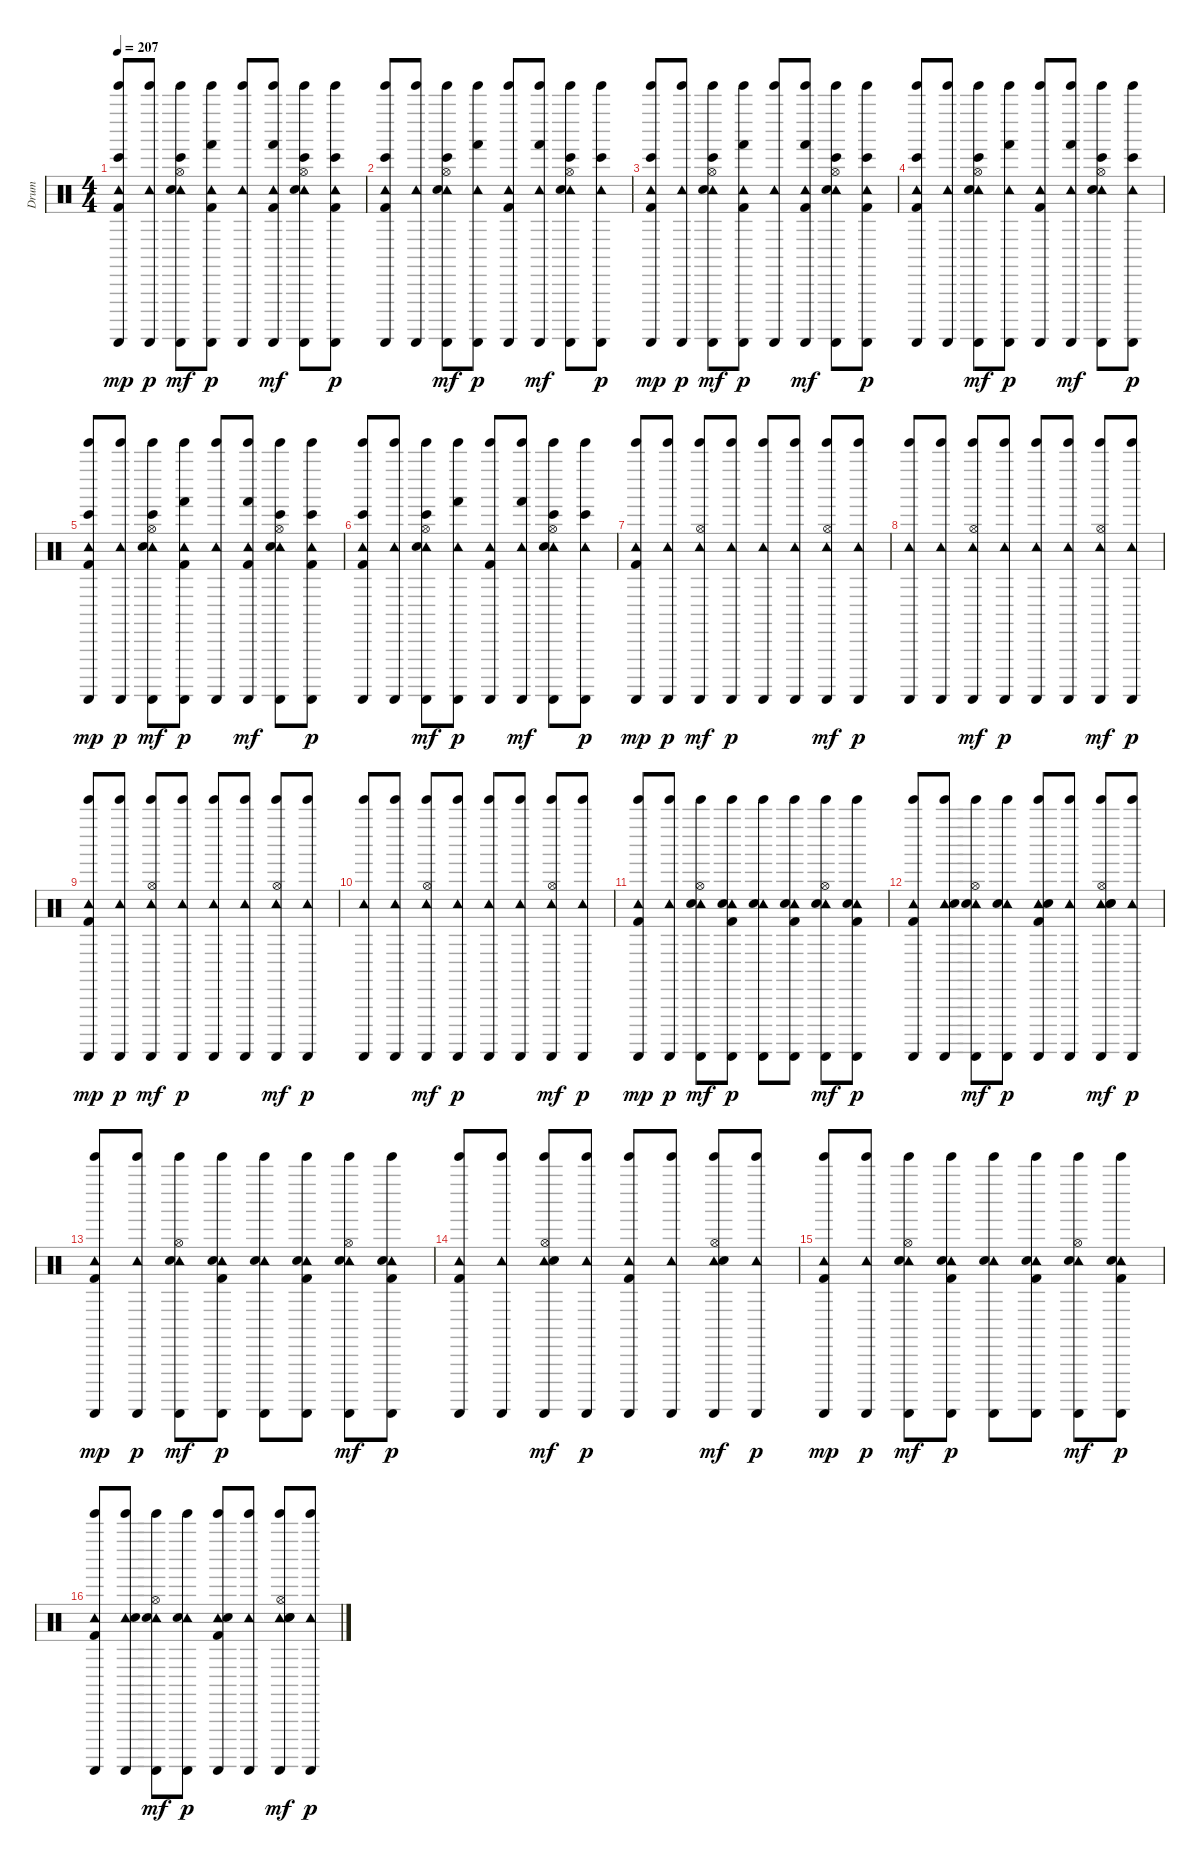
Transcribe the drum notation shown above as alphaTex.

\track ("Drum" "Drum") {instrument percussion}
\staff {score}
\articulation defaults
\ts (4 4)
\tempo 207
\clef neutral
\ks c
("Tambourine (hit)" "Kick (hit) 2" "Tinkle Bell (hit)" "Guiro (scrap-return)" "Bongo High (hit)").8{dy mp} ("Tambourine (hit)" "Tinkle Bell (hit)" "Guiro (scrap-return)").8{dy p} ("Tambourine (hit)" "Hi-Hat (open)" "Snare (hit) 2" "Tinkle Bell (hit)" "Guiro (scrap-return)" "Bongo High (hit)").8{dy mf} ("Tambourine (hit)" "Kick (hit) 2" "Tinkle Bell (hit)" "Guiro (scrap-return)" "Hand (hit)").8{dy p} ("Tambourine (hit)" "Tinkle Bell (hit)" "Guiro (scrap-return)").8 ("Tambourine (hit)" "Kick (hit) 2" "Tinkle Bell (hit)" "Guiro (scrap-return)" "Hand (hit)").8{dy mf} ("Tambourine (hit)" "Hi-Hat (open)" "Snare (hit) 2" "Tinkle Bell (hit)" "Guiro (scrap-return)" "Bongo High (hit)").8 ("Tambourine (hit)" "Kick (hit) 2" "Tinkle Bell (hit)" "Guiro (scrap-return)" "Bongo High (hit)").8{dy p} |
("Tambourine (hit)" "Kick (hit) 2" "Tinkle Bell (hit)" "Guiro (scrap-return)" "Bongo High (hit)").8 ("Tambourine (hit)" "Tinkle Bell (hit)" "Guiro (scrap-return)").8 ("Tambourine (hit)" "Hi-Hat (open)" "Snare (hit) 2" "Tinkle Bell (hit)" "Guiro (scrap-return)" "Bongo High (hit)").8{dy mf} ("Tambourine (hit)" "Tinkle Bell (hit)" "Guiro (scrap-return)" "Hand (hit)").8{dy p} ("Tambourine (hit)" "Kick (hit) 2" "Tinkle Bell (hit)" "Guiro (scrap-return)").8 ("Tambourine (hit)" "Tinkle Bell (hit)" "Guiro (scrap-return)" "Hand (hit)").8{dy mf} ("Tambourine (hit)" "Hi-Hat (open)" "Snare (hit) 2" "Tinkle Bell (hit)" "Guiro (scrap-return)" "Bongo High (hit)").8 ("Tambourine (hit)" "Tinkle Bell (hit)" "Guiro (scrap-return)" "Bongo High (hit)").8{dy p} |
("Tambourine (hit)" "Kick (hit) 2" "Tinkle Bell (hit)" "Guiro (scrap-return)" "Bongo High (hit)").8{dy mp} ("Tambourine (hit)" "Tinkle Bell (hit)" "Guiro (scrap-return)").8{dy p} ("Tambourine (hit)" "Hi-Hat (open)" "Snare (hit) 2" "Tinkle Bell (hit)" "Guiro (scrap-return)" "Bongo High (hit)").8{dy mf} ("Tambourine (hit)" "Kick (hit) 2" "Tinkle Bell (hit)" "Guiro (scrap-return)" "Hand (hit)").8{dy p} ("Tambourine (hit)" "Tinkle Bell (hit)" "Guiro (scrap-return)").8 ("Tambourine (hit)" "Kick (hit) 2" "Tinkle Bell (hit)" "Guiro (scrap-return)" "Hand (hit)").8{dy mf} ("Tambourine (hit)" "Hi-Hat (open)" "Snare (hit) 2" "Tinkle Bell (hit)" "Guiro (scrap-return)" "Bongo High (hit)").8 ("Tambourine (hit)" "Kick (hit) 2" "Tinkle Bell (hit)" "Guiro (scrap-return)" "Bongo High (hit)").8{dy p} |
("Tambourine (hit)" "Kick (hit) 2" "Tinkle Bell (hit)" "Guiro (scrap-return)" "Bongo High (hit)").8 ("Tambourine (hit)" "Tinkle Bell (hit)" "Guiro (scrap-return)").8 ("Tambourine (hit)" "Hi-Hat (open)" "Snare (hit) 2" "Tinkle Bell (hit)" "Guiro (scrap-return)" "Bongo High (hit)").8{dy mf} ("Tambourine (hit)" "Tinkle Bell (hit)" "Guiro (scrap-return)" "Hand (hit)").8{dy p} ("Tambourine (hit)" "Kick (hit) 2" "Tinkle Bell (hit)" "Guiro (scrap-return)").8 ("Tambourine (hit)" "Tinkle Bell (hit)" "Guiro (scrap-return)" "Hand (hit)").8{dy mf} ("Tambourine (hit)" "Hi-Hat (open)" "Snare (hit) 2" "Tinkle Bell (hit)" "Guiro (scrap-return)" "Bongo High (hit)").8 ("Tambourine (hit)" "Tinkle Bell (hit)" "Guiro (scrap-return)" "Bongo High (hit)").8{dy p} |
("Tambourine (hit)" "Kick (hit) 2" "Tinkle Bell (hit)" "Guiro (scrap-return)" "Bongo High (hit)").8{dy mp} ("Tambourine (hit)" "Tinkle Bell (hit)" "Guiro (scrap-return)").8{dy p} ("Tambourine (hit)" "Hi-Hat (open)" "Snare (hit) 2" "Tinkle Bell (hit)" "Guiro (scrap-return)" "Bongo High (hit)").8{dy mf} ("Tambourine (hit)" "Kick (hit) 2" "Tinkle Bell (hit)" "Guiro (scrap-return)" "Hand (hit)").8{dy p} ("Tambourine (hit)" "Tinkle Bell (hit)" "Guiro (scrap-return)").8 ("Tambourine (hit)" "Kick (hit) 2" "Tinkle Bell (hit)" "Guiro (scrap-return)" "Hand (hit)").8{dy mf} ("Tambourine (hit)" "Hi-Hat (open)" "Snare (hit) 2" "Tinkle Bell (hit)" "Guiro (scrap-return)" "Bongo High (hit)").8 ("Tambourine (hit)" "Kick (hit) 2" "Tinkle Bell (hit)" "Guiro (scrap-return)" "Bongo High (hit)").8{dy p} |
("Tambourine (hit)" "Kick (hit) 2" "Tinkle Bell (hit)" "Guiro (scrap-return)" "Bongo High (hit)").8 ("Tambourine (hit)" "Tinkle Bell (hit)" "Guiro (scrap-return)").8 ("Tambourine (hit)" "Hi-Hat (open)" "Snare (hit) 2" "Tinkle Bell (hit)" "Guiro (scrap-return)" "Bongo High (hit)").8{dy mf} ("Tambourine (hit)" "Tinkle Bell (hit)" "Guiro (scrap-return)" "Hand (hit)").8{dy p} ("Tambourine (hit)" "Kick (hit) 2" "Tinkle Bell (hit)" "Guiro (scrap-return)").8 ("Tambourine (hit)" "Tinkle Bell (hit)" "Guiro (scrap-return)" "Hand (hit)").8{dy mf} ("Tambourine (hit)" "Hi-Hat (open)" "Snare (hit) 2" "Tinkle Bell (hit)" "Guiro (scrap-return)" "Bongo High (hit)").8 ("Tambourine (hit)" "Tinkle Bell (hit)" "Guiro (scrap-return)" "Bongo High (hit)").8{dy p} |
("Tambourine (hit)" "Kick (hit) 2" "Tinkle Bell (hit)" "Guiro (scrap-return)").8{dy mp} ("Tambourine (hit)" "Tinkle Bell (hit)" "Guiro (scrap-return)").8{dy p} ("Tambourine (hit)" "Hi-Hat (open)" "Tinkle Bell (hit)" "Guiro (scrap-return)").8{dy mf} ("Tambourine (hit)" "Tinkle Bell (hit)" "Guiro (scrap-return)").8{dy p} ("Tambourine (hit)" "Tinkle Bell (hit)" "Guiro (scrap-return)").8 ("Tambourine (hit)" "Tinkle Bell (hit)" "Guiro (scrap-return)").8 ("Tambourine (hit)" "Hi-Hat (open)" "Tinkle Bell (hit)" "Guiro (scrap-return)").8{dy mf} ("Tambourine (hit)" "Tinkle Bell (hit)" "Guiro (scrap-return)").8{dy p} |
("Tambourine (hit)" "Tinkle Bell (hit)" "Guiro (scrap-return)").8 ("Tambourine (hit)" "Tinkle Bell (hit)" "Guiro (scrap-return)").8 ("Tambourine (hit)" "Hi-Hat (open)" "Tinkle Bell (hit)" "Guiro (scrap-return)").8{dy mf} ("Tambourine (hit)" "Tinkle Bell (hit)" "Guiro (scrap-return)").8{dy p} ("Tambourine (hit)" "Tinkle Bell (hit)" "Guiro (scrap-return)").8 ("Tambourine (hit)" "Tinkle Bell (hit)" "Guiro (scrap-return)").8 ("Tambourine (hit)" "Hi-Hat (open)" "Tinkle Bell (hit)" "Guiro (scrap-return)").8{dy mf} ("Tambourine (hit)" "Tinkle Bell (hit)" "Guiro (scrap-return)").8{dy p} |
("Tambourine (hit)" "Kick (hit) 2" "Tinkle Bell (hit)" "Guiro (scrap-return)").8{dy mp} ("Tambourine (hit)" "Tinkle Bell (hit)" "Guiro (scrap-return)").8{dy p} ("Tambourine (hit)" "Hi-Hat (open)" "Tinkle Bell (hit)" "Guiro (scrap-return)").8{dy mf} ("Tambourine (hit)" "Tinkle Bell (hit)" "Guiro (scrap-return)").8{dy p} ("Tambourine (hit)" "Tinkle Bell (hit)" "Guiro (scrap-return)").8 ("Tambourine (hit)" "Tinkle Bell (hit)" "Guiro (scrap-return)").8 ("Tambourine (hit)" "Hi-Hat (open)" "Tinkle Bell (hit)" "Guiro (scrap-return)").8{dy mf} ("Tambourine (hit)" "Tinkle Bell (hit)" "Guiro (scrap-return)").8{dy p} |
("Tambourine (hit)" "Tinkle Bell (hit)" "Guiro (scrap-return)").8 ("Tambourine (hit)" "Tinkle Bell (hit)" "Guiro (scrap-return)").8 ("Tambourine (hit)" "Hi-Hat (open)" "Tinkle Bell (hit)" "Guiro (scrap-return)").8{dy mf} ("Tambourine (hit)" "Tinkle Bell (hit)" "Guiro (scrap-return)").8{dy p} ("Tambourine (hit)" "Tinkle Bell (hit)" "Guiro (scrap-return)").8 ("Tambourine (hit)" "Tinkle Bell (hit)" "Guiro (scrap-return)").8 ("Tambourine (hit)" "Hi-Hat (open)" "Tinkle Bell (hit)" "Guiro (scrap-return)").8{dy mf} ("Tambourine (hit)" "Tinkle Bell (hit)" "Guiro (scrap-return)").8{dy p} |
("Tambourine (hit)" "Kick (hit) 2" "Tinkle Bell (hit)" "Guiro (scrap-return)").8{dy mp} ("Tambourine (hit)" "Tinkle Bell (hit)" "Guiro (scrap-return)").8{dy p} ("Tambourine (hit)" "Hi-Hat (open)" "Snare (hit) 2" "Tinkle Bell (hit)" "Guiro (scrap-return)").8{dy mf} ("Tambourine (hit)" "Kick (hit) 2" "Tinkle Bell (hit)" "Guiro (scrap-return)" "Hand Clap (hit)").8{dy p} ("Tambourine (hit)" "Tinkle Bell (hit)" "Guiro (scrap-return)" "Hand Clap (hit)").8 ("Tambourine (hit)" "Kick (hit) 2" "Tinkle Bell (hit)" "Guiro (scrap-return)" "Hand Clap (hit)").8 ("Tambourine (hit)" "Hi-Hat (open)" "Snare (hit) 2" "Tinkle Bell (hit)" "Guiro (scrap-return)").8{dy mf} ("Tambourine (hit)" "Kick (hit) 2" "Tinkle Bell (hit)" "Guiro (scrap-return)" "Hand Clap (hit)").8{dy p} |
("Tambourine (hit)" "Kick (hit) 2" "Tinkle Bell (hit)" "Guiro (scrap-return)").8 ("Tambourine (hit)" "Tinkle Bell (hit)" "Guiro (scrap-return)" "Hand Clap (hit)").8 ("Tambourine (hit)" "Hi-Hat (open)" "Snare (hit) 2" "Tinkle Bell (hit)" "Guiro (scrap-return)").8{dy mf} ("Tambourine (hit)" "Tinkle Bell (hit)" "Guiro (scrap-return)" "Hand Clap (hit)").8{dy p} ("Tambourine (hit)" "Kick (hit) 2" "Tinkle Bell (hit)" "Guiro (scrap-return)" "Hand Clap (hit)").8 ("Tambourine (hit)" "Tinkle Bell (hit)" "Guiro (scrap-return)").8 ("Tambourine (hit)" "Hi-Hat (open)" "Snare (hit) 2" "Tinkle Bell (hit)" "Guiro (scrap-return)" "Hand Clap (hit)").8{dy mf} ("Tambourine (hit)" "Tinkle Bell (hit)" "Guiro (scrap-return)").8{dy p} |
("Tambourine (hit)" "Kick (hit) 2" "Tinkle Bell (hit)" "Guiro (scrap-return)").8{dy mp} ("Tambourine (hit)" "Tinkle Bell (hit)" "Guiro (scrap-return)").8{dy p} ("Tambourine (hit)" "Hi-Hat (open)" "Snare (hit) 2" "Tinkle Bell (hit)" "Guiro (scrap-return)").8{dy mf} ("Tambourine (hit)" "Kick (hit) 2" "Tinkle Bell (hit)" "Guiro (scrap-return)" "Hand Clap (hit)").8{dy p} ("Tambourine (hit)" "Tinkle Bell (hit)" "Guiro (scrap-return)" "Hand Clap (hit)").8 ("Tambourine (hit)" "Kick (hit) 2" "Tinkle Bell (hit)" "Guiro (scrap-return)" "Hand Clap (hit)").8 ("Tambourine (hit)" "Hi-Hat (open)" "Snare (hit) 2" "Tinkle Bell (hit)" "Guiro (scrap-return)").8{dy mf} ("Tambourine (hit)" "Kick (hit) 2" "Tinkle Bell (hit)" "Guiro (scrap-return)" "Hand Clap (hit)").8{dy p} |
("Tambourine (hit)" "Kick (hit) 2" "Tinkle Bell (hit)" "Guiro (scrap-return)").8 ("Tambourine (hit)" "Tinkle Bell (hit)" "Guiro (scrap-return)").8 ("Tambourine (hit)" "Hi-Hat (open)" "Snare (hit) 2" "Tinkle Bell (hit)" "Guiro (scrap-return)").8{dy mf} ("Tambourine (hit)" "Tinkle Bell (hit)" "Guiro (scrap-return)").8{dy p} ("Tambourine (hit)" "Kick (hit) 2" "Tinkle Bell (hit)" "Guiro (scrap-return)").8 ("Tambourine (hit)" "Tinkle Bell (hit)" "Guiro (scrap-return)").8 ("Tambourine (hit)" "Hi-Hat (open)" "Snare (hit) 2" "Tinkle Bell (hit)" "Guiro (scrap-return)").8{dy mf} ("Tambourine (hit)" "Tinkle Bell (hit)" "Guiro (scrap-return)").8{dy p} |
("Tambourine (hit)" "Kick (hit) 2" "Tinkle Bell (hit)" "Guiro (scrap-return)").8{dy mp} ("Tambourine (hit)" "Tinkle Bell (hit)" "Guiro (scrap-return)").8{dy p} ("Tambourine (hit)" "Hi-Hat (open)" "Snare (hit) 2" "Tinkle Bell (hit)" "Guiro (scrap-return)").8{dy mf} ("Tambourine (hit)" "Kick (hit) 2" "Tinkle Bell (hit)" "Guiro (scrap-return)" "Hand Clap (hit)").8{dy p} ("Tambourine (hit)" "Tinkle Bell (hit)" "Guiro (scrap-return)" "Hand Clap (hit)").8 ("Tambourine (hit)" "Kick (hit) 2" "Tinkle Bell (hit)" "Guiro (scrap-return)" "Hand Clap (hit)").8 ("Tambourine (hit)" "Hi-Hat (open)" "Snare (hit) 2" "Tinkle Bell (hit)" "Guiro (scrap-return)").8{dy mf} ("Tambourine (hit)" "Kick (hit) 2" "Tinkle Bell (hit)" "Guiro (scrap-return)" "Hand Clap (hit)").8{dy p} |
("Tambourine (hit)" "Kick (hit) 2" "Tinkle Bell (hit)" "Guiro (scrap-return)").8 ("Tambourine (hit)" "Tinkle Bell (hit)" "Guiro (scrap-return)" "Hand Clap (hit)").8 ("Tambourine (hit)" "Hi-Hat (open)" "Snare (hit) 2" "Tinkle Bell (hit)" "Guiro (scrap-return)").8{dy mf} ("Tambourine (hit)" "Tinkle Bell (hit)" "Guiro (scrap-return)" "Hand Clap (hit)").8{dy p} ("Tambourine (hit)" "Kick (hit) 2" "Tinkle Bell (hit)" "Guiro (scrap-return)" "Hand Clap (hit)").8 ("Tambourine (hit)" "Tinkle Bell (hit)" "Guiro (scrap-return)").8 ("Tambourine (hit)" "Hi-Hat (open)" "Snare (hit) 2" "Tinkle Bell (hit)" "Guiro (scrap-return)" "Hand Clap (hit)").8{dy mf} ("Tambourine (hit)" "Tinkle Bell (hit)" "Guiro (scrap-return)").8{dy p}
